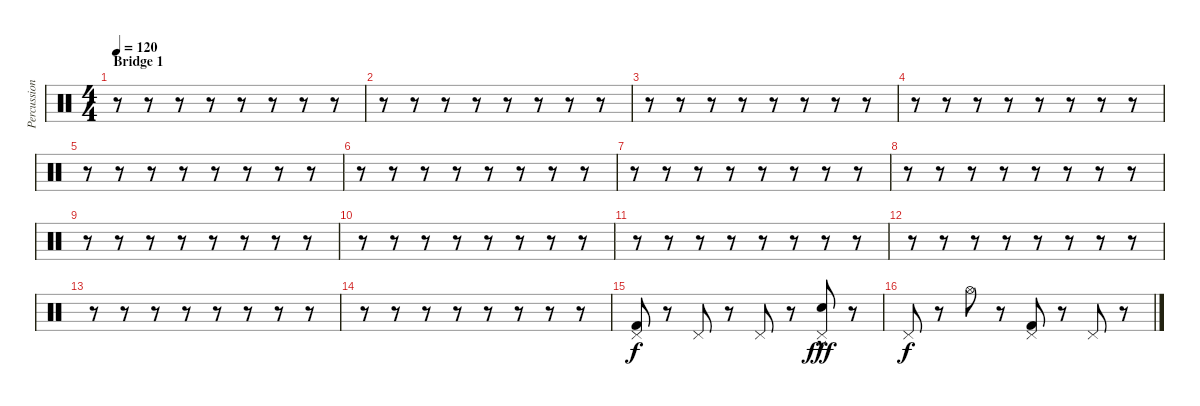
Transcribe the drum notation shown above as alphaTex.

\track ("Percussion" "Percussion") {instrument percussion}
\staff {score}
\articulation defaults
\ts (4 4)
\section ("" "Bridge 1")
\tempo 120
\clef neutral
\ks c
r.8{dy fff} r.8 r.8 r.8 r.8 r.8 r.8 r.8 |
r.8 r.8 r.8 r.8 r.8 r.8 r.8 r.8 |
r.8 r.8 r.8 r.8 r.8 r.8 r.8 r.8 |
r.8 r.8 r.8 r.8 r.8 r.8 r.8 r.8 |
r.8 r.8 r.8 r.8 r.8 r.8 r.8 r.8 |
r.8 r.8 r.8 r.8 r.8 r.8 r.8 r.8 |
r.8 r.8 r.8 r.8 r.8 r.8 r.8 r.8 |
r.8 r.8 r.8 r.8 r.8 r.8 r.8 r.8 |
r.8 r.8 r.8 r.8 r.8 r.8 r.8 r.8 |
r.8 r.8 r.8 r.8 r.8 r.8 r.8 r.8 |
r.8 r.8 r.8 r.8 r.8 r.8 r.8 r.8 |
r.8 r.8 r.8 r.8 r.8 r.8 r.8 r.8 |
r.8 r.8 r.8 r.8 r.8 r.8 r.8 r.8 |
r.8 r.8 r.8 r.8 r.8 r.8 r.8 r.8 |
("Kick (hit) 2" "Pedal Hi-Hat (hit)").8{dy f} r.8 "Pedal Hi-Hat (hit)".8 r.8 "Pedal Hi-Hat (hit)".8 r.8 ("Snare (hit) 2"{hac} "Pedal Hi-Hat (hit)").8{dy fff} r.8 |
"Pedal Hi-Hat (hit)".8{dy f} r.8 "Hi-Hat (open)".8 r.8 ("Kick (hit) 2" "Pedal Hi-Hat (hit)").8 r.8 "Pedal Hi-Hat (hit)".8 r.8
